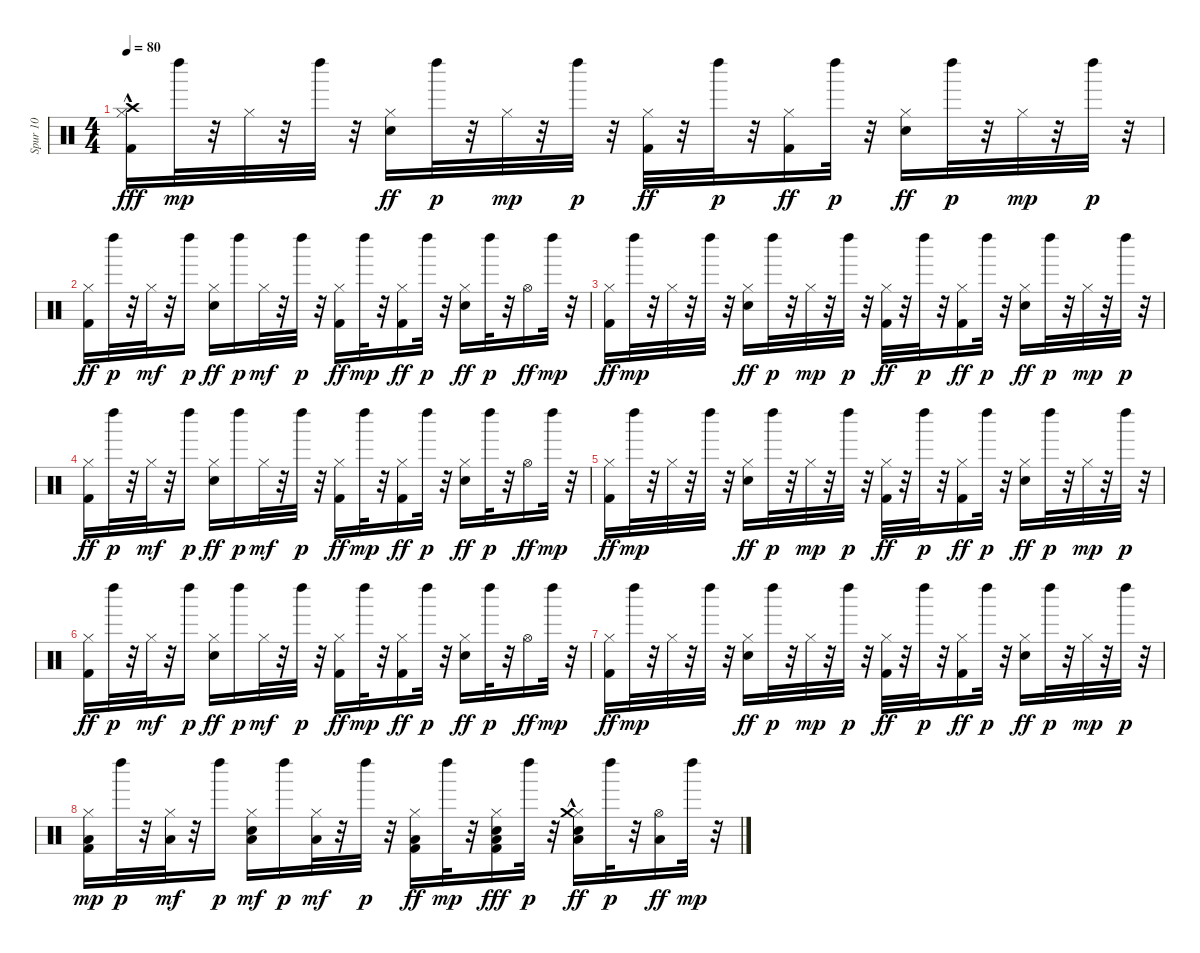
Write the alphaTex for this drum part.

\track ("Spur 10" "Spur 10") {instrument percussion}
\staff {score}
\articulation defaults
\ts (4 4)
\tempo 80
\clef neutral
\ks c
("Hi-Hat (closed)" "Kick (hit) 2" "Crash high (hit)"{hac}).16{dy fff} "Left Maraca (hit)".32{dy mp} r.32 "Hi-Hat (closed)".32 r.32 "Left Maraca (hit)".32 r.32 ("Electric Snare (hit)" "Hi-Hat (closed)").16{dy ff} "Left Maraca (hit)".32{dy p} r.32 "Hi-Hat (closed)".32{dy mp} r.32 "Left Maraca (hit)".32{dy p} r.32 ("Hi-Hat (closed)" "Kick (hit) 2").32{dy ff} r.32 "Left Maraca (hit)".32{dy p} r.32 ("Hi-Hat (closed)" "Kick (hit) 2").16{dy ff} "Left Maraca (hit)".32{dy p} r.32 ("Electric Snare (hit)" "Hi-Hat (closed)").16{dy ff} "Left Maraca (hit)".32{dy p} r.32 "Hi-Hat (closed)".32{dy mp} r.32 "Left Maraca (hit)".32{dy p} r.32 |
("Hi-Hat (closed)" "Kick (hit) 2").16{dy ff} "Left Maraca (hit)".32{dy p} r.32 "Hi-Hat (closed)".32{dy mf} r.32 "Left Maraca (hit)".16{dy p} ("Electric Snare (hit)" "Hi-Hat (closed)").16{dy ff} "Left Maraca (hit)".16{dy p} "Hi-Hat (closed)".32{dy mf} r.32 "Left Maraca (hit)".32{dy p} r.32 ("Hi-Hat (closed)" "Kick (hit) 2").16{dy ff} "Left Maraca (hit)".32{dy mp} r.32 ("Hi-Hat (closed)" "Kick (hit) 2").16{dy ff} "Left Maraca (hit)".32{dy p} r.32 ("Electric Snare (hit)" "Hi-Hat (closed)").16{dy ff} "Left Maraca (hit)".32{dy p} r.32 "Hi-Hat (open)".16{dy ff} "Left Maraca (hit)".32{dy mp} r.32 |
("Hi-Hat (closed)" "Kick (hit) 2").16{dy ff} "Left Maraca (hit)".32{dy mp} r.32 "Hi-Hat (closed)".32 r.32 "Left Maraca (hit)".32 r.32 ("Electric Snare (hit)" "Hi-Hat (closed)").16{dy ff} "Left Maraca (hit)".32{dy p} r.32 "Hi-Hat (closed)".32{dy mp} r.32 "Left Maraca (hit)".32{dy p} r.32 ("Hi-Hat (closed)" "Kick (hit) 2").32{dy ff} r.32 "Left Maraca (hit)".32{dy p} r.32 ("Hi-Hat (closed)" "Kick (hit) 2").16{dy ff} "Left Maraca (hit)".32{dy p} r.32 ("Electric Snare (hit)" "Hi-Hat (closed)").16{dy ff} "Left Maraca (hit)".32{dy p} r.32 "Hi-Hat (closed)".32{dy mp} r.32 "Left Maraca (hit)".32{dy p} r.32 |
("Hi-Hat (closed)" "Kick (hit) 2").16{dy ff} "Left Maraca (hit)".32{dy p} r.32 "Hi-Hat (closed)".32{dy mf} r.32 "Left Maraca (hit)".16{dy p} ("Electric Snare (hit)" "Hi-Hat (closed)").16{dy ff} "Left Maraca (hit)".16{dy p} "Hi-Hat (closed)".32{dy mf} r.32 "Left Maraca (hit)".32{dy p} r.32 ("Hi-Hat (closed)" "Kick (hit) 2").16{dy ff} "Left Maraca (hit)".32{dy mp} r.32 ("Hi-Hat (closed)" "Kick (hit) 2").16{dy ff} "Left Maraca (hit)".32{dy p} r.32 ("Electric Snare (hit)" "Hi-Hat (closed)").16{dy ff} "Left Maraca (hit)".32{dy p} r.32 "Hi-Hat (open)".16{dy ff} "Left Maraca (hit)".32{dy mp} r.32 |
("Hi-Hat (closed)" "Kick (hit) 2").16{dy ff} "Left Maraca (hit)".32{dy mp} r.32 "Hi-Hat (closed)".32 r.32 "Left Maraca (hit)".32 r.32 ("Electric Snare (hit)" "Hi-Hat (closed)").16{dy ff} "Left Maraca (hit)".32{dy p} r.32 "Hi-Hat (closed)".32{dy mp} r.32 "Left Maraca (hit)".32{dy p} r.32 ("Hi-Hat (closed)" "Kick (hit) 2").32{dy ff} r.32 "Left Maraca (hit)".32{dy p} r.32 ("Hi-Hat (closed)" "Kick (hit) 2").16{dy ff} "Left Maraca (hit)".32{dy p} r.32 ("Electric Snare (hit)" "Hi-Hat (closed)").16{dy ff} "Left Maraca (hit)".32{dy p} r.32 "Hi-Hat (closed)".32{dy mp} r.32 "Left Maraca (hit)".32{dy p} r.32 |
("Hi-Hat (closed)" "Kick (hit) 2").16{dy ff} "Left Maraca (hit)".32{dy p} r.32 "Hi-Hat (closed)".32{dy mf} r.32 "Left Maraca (hit)".16{dy p} ("Electric Snare (hit)" "Hi-Hat (closed)").16{dy ff} "Left Maraca (hit)".16{dy p} "Hi-Hat (closed)".32{dy mf} r.32 "Left Maraca (hit)".32{dy p} r.32 ("Hi-Hat (closed)" "Kick (hit) 2").16{dy ff} "Left Maraca (hit)".32{dy mp} r.32 ("Hi-Hat (closed)" "Kick (hit) 2").16{dy ff} "Left Maraca (hit)".32{dy p} r.32 ("Electric Snare (hit)" "Hi-Hat (closed)").16{dy ff} "Left Maraca (hit)".32{dy p} r.32 "Hi-Hat (open)".16{dy ff} "Left Maraca (hit)".32{dy mp} r.32 |
("Hi-Hat (closed)" "Kick (hit) 2").16{dy ff} "Left Maraca (hit)".32{dy mp} r.32 "Hi-Hat (closed)".32 r.32 "Left Maraca (hit)".32 r.32 ("Electric Snare (hit)" "Hi-Hat (closed)").16{dy ff} "Left Maraca (hit)".32{dy p} r.32 "Hi-Hat (closed)".32{dy mp} r.32 "Left Maraca (hit)".32{dy p} r.32 ("Hi-Hat (closed)" "Kick (hit) 2").32{dy ff} r.32 "Left Maraca (hit)".32{dy p} r.32 ("Hi-Hat (closed)" "Kick (hit) 2").16{dy ff} "Left Maraca (hit)".32{dy p} r.32 ("Electric Snare (hit)" "Hi-Hat (closed)").16{dy ff} "Left Maraca (hit)".32{dy p} r.32 "Hi-Hat (closed)".32{dy mp} r.32 "Left Maraca (hit)".32{dy p} r.32 |
("Hi-Hat (closed)" "Kick (hit) 2" "Low Tom (hit)").16{dy mp} "Left Maraca (hit)".32{dy p} r.32 ("Hi-Hat (closed)" "Low Tom (hit)").32{dy mf} r.32 "Left Maraca (hit)".16{dy p} ("Electric Snare (hit)" "Hi-Hat (closed)" "Low Tom (hit)").16{dy mf} "Left Maraca (hit)".16{dy p} ("Hi-Hat (closed)" "Low Tom (hit)").32{dy mf} r.32 "Left Maraca (hit)".32{dy p} r.32 ("Hi-Hat (closed)" "Kick (hit) 2" "Low Tom (hit)").16{dy ff} "Left Maraca (hit)".32{dy mp} r.32 ("Hi-Hat (closed)" "Kick (hit) 2" "Low Tom (hit)" "Electric Snare (hit)").16{dy fff} "Left Maraca (hit)".32{dy p} r.32 ("Electric Snare (hit)" "Hi-Hat (closed)" "Low Tom (hit)" "Crash medium (hit)"{hac}).16{dy ff} "Left Maraca (hit)".32{dy p} r.32 ("Hi-Hat (open)" "Low Tom (hit)").16{dy ff} "Left Maraca (hit)".32{dy mp} r.32
